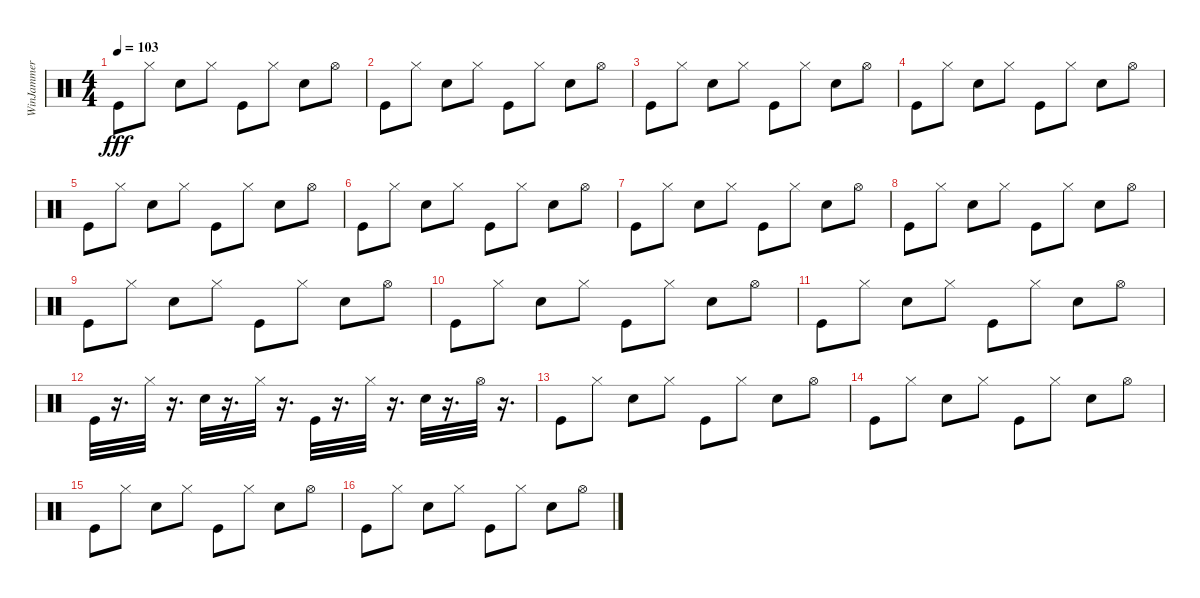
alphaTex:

\track ("WinJammer Demo" "WinJammer ") {instrument percussion}
\staff {score}
\articulation defaults
\ts (4 4)
\tempo 103
\clef neutral
\ks c "Kick (hit)".8{dy fff} "Hi-Hat (closed)".8 "Snare (hit) 2".8 "Hi-Hat (closed)".8 "Kick (hit)".8 "Hi-Hat (closed)".8 "Snare (hit) 2".8 "Hi-Hat (open)".8
|
"Kick (hit)".8 "Hi-Hat (closed)".8 "Snare (hit) 2".8 "Hi-Hat (closed)".8 "Kick (hit)".8 "Hi-Hat (closed)".8 "Snare (hit) 2".8 "Hi-Hat (open)".8 |
"Kick (hit)".8 "Hi-Hat (closed)".8 "Snare (hit) 2".8 "Hi-Hat (closed)".8 "Kick (hit)".8 "Hi-Hat (closed)".8 "Snare (hit) 2".8 "Hi-Hat (open)".8 |
"Kick (hit)".8 "Hi-Hat (closed)".8 "Snare (hit) 2".8 "Hi-Hat (closed)".8 "Kick (hit)".8 "Hi-Hat (closed)".8 "Snare (hit) 2".8 "Hi-Hat (open)".8 |
"Kick (hit)".8 "Hi-Hat (closed)".8 "Snare (hit) 2".8 "Hi-Hat (closed)".8 "Kick (hit)".8 "Hi-Hat (closed)".8 "Snare (hit) 2".8 "Hi-Hat (open)".8 |
"Kick (hit)".8 "Hi-Hat (closed)".8 "Snare (hit) 2".8 "Hi-Hat (closed)".8 "Kick (hit)".8 "Hi-Hat (closed)".8 "Snare (hit) 2".8 "Hi-Hat (open)".8 |
"Kick (hit)".8 "Hi-Hat (closed)".8 "Snare (hit) 2".8 "Hi-Hat (closed)".8 "Kick (hit)".8 "Hi-Hat (closed)".8 "Snare (hit) 2".8 "Hi-Hat (open)".8 |
"Kick (hit)".8 "Hi-Hat (closed)".8 "Snare (hit) 2".8 "Hi-Hat (closed)".8 "Kick (hit)".8 "Hi-Hat (closed)".8 "Snare (hit) 2".8 "Hi-Hat (open)".8 |
"Kick (hit)".8 "Hi-Hat (closed)".8 "Snare (hit) 2".8 "Hi-Hat (closed)".8 "Kick (hit)".8 "Hi-Hat (closed)".8 "Snare (hit) 2".8 "Hi-Hat (open)".8 |
"Kick (hit)".8 "Hi-Hat (closed)".8 "Snare (hit) 2".8 "Hi-Hat (closed)".8 "Kick (hit)".8 "Hi-Hat (closed)".8 "Snare (hit) 2".8 "Hi-Hat (open)".8 |
"Kick (hit)".8 "Hi-Hat (closed)".8 "Snare (hit) 2".8 "Hi-Hat (closed)".8 "Kick (hit)".8 "Hi-Hat (closed)".8 "Snare (hit) 2".8 "Hi-Hat (open)".8 |
"Kick (hit)".32 r.16{d} "Hi-Hat (closed)".32 r.16{d} "Snare (hit) 2".32 r.16{d} "Hi-Hat (closed)".32 r.16{d} "Kick (hit)".32 r.16{d} "Hi-Hat (closed)".32 r.16{d} "Snare (hit) 2".32 r.16{d} "Hi-Hat (open)".32 r.16{d} |
"Kick (hit)".8 "Hi-Hat (closed)".8 "Snare (hit) 2".8 "Hi-Hat (closed)".8 "Kick (hit)".8 "Hi-Hat (closed)".8 "Snare (hit) 2".8 "Hi-Hat (open)".8 |
"Kick (hit)".8 "Hi-Hat (closed)".8 "Snare (hit) 2".8 "Hi-Hat (closed)".8 "Kick (hit)".8 "Hi-Hat (closed)".8 "Snare (hit) 2".8 "Hi-Hat (open)".8 |
"Kick (hit)".8 "Hi-Hat (closed)".8 "Snare (hit) 2".8 "Hi-Hat (closed)".8 "Kick (hit)".8 "Hi-Hat (closed)".8 "Snare (hit) 2".8 "Hi-Hat (open)".8 |
"Kick (hit)".8 "Hi-Hat (closed)".8 "Snare (hit) 2".8 "Hi-Hat (closed)".8 "Kick (hit)".8 "Hi-Hat (closed)".8 "Snare (hit) 2".8 "Hi-Hat (open)".8
